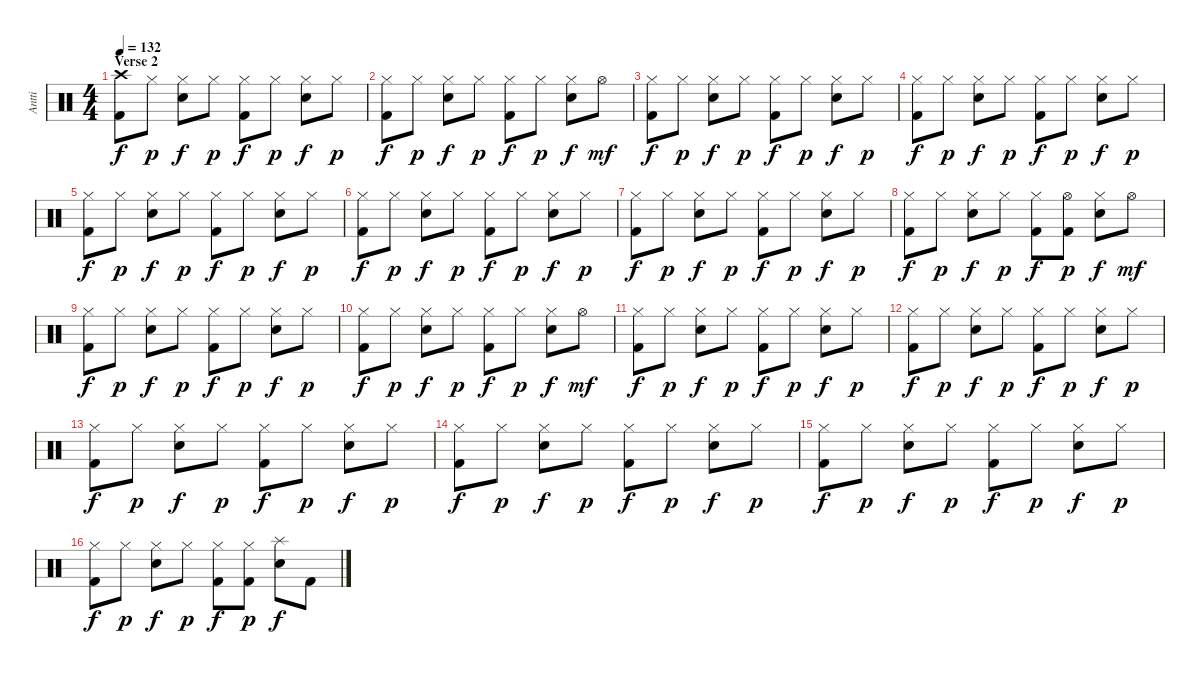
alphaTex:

\track ("Antti" "Antti") {instrument percussion}
\staff {score}
\articulation defaults
\ts (4 4)
\section ("" "Verse 2")
\tempo 132
\clef neutral
\ks c
("Crash high (hit)" "Kick (hit) 2").8{dy f} "Hi-Hat (closed)".8{dy p} ("Hi-Hat (closed)" "Electric Snare (hit)").8{dy f} "Hi-Hat (closed)".8{dy p} ("Hi-Hat (closed)" "Kick (hit) 2").8{dy f} "Hi-Hat (closed)".8{dy p} ("Hi-Hat (closed)" "Electric Snare (hit)").8{dy f} "Hi-Hat (closed)".8{dy p} |
("Hi-Hat (closed)" "Kick (hit) 2").8{dy f} "Hi-Hat (closed)".8{dy p} ("Hi-Hat (closed)" "Electric Snare (hit)").8{dy f} "Hi-Hat (closed)".8{dy p} ("Hi-Hat (closed)" "Kick (hit) 2").8{dy f} "Hi-Hat (closed)".8{dy p} ("Hi-Hat (closed)" "Electric Snare (hit)").8{dy f} "Hi-Hat (open)".8{dy mf} |
("Hi-Hat (closed)" "Kick (hit) 2").8{dy f} "Hi-Hat (closed)".8{dy p} ("Hi-Hat (closed)" "Electric Snare (hit)").8{dy f} "Hi-Hat (closed)".8{dy p} ("Hi-Hat (closed)" "Kick (hit) 2").8{dy f} "Hi-Hat (closed)".8{dy p} ("Hi-Hat (closed)" "Electric Snare (hit)").8{dy f} "Hi-Hat (closed)".8{dy p} |
("Hi-Hat (closed)" "Kick (hit) 2").8{dy f} "Hi-Hat (closed)".8{dy p} ("Hi-Hat (closed)" "Electric Snare (hit)").8{dy f} "Hi-Hat (closed)".8{dy p} ("Hi-Hat (closed)" "Kick (hit) 2").8{dy f} "Hi-Hat (closed)".8{dy p} ("Hi-Hat (closed)" "Electric Snare (hit)").8{dy f} "Hi-Hat (closed)".8{dy p} |
("Hi-Hat (closed)" "Kick (hit) 2").8{dy f} "Hi-Hat (closed)".8{dy p} ("Hi-Hat (closed)" "Electric Snare (hit)").8{dy f} "Hi-Hat (closed)".8{dy p} ("Hi-Hat (closed)" "Kick (hit) 2").8{dy f} "Hi-Hat (closed)".8{dy p} ("Hi-Hat (closed)" "Electric Snare (hit)").8{dy f} "Hi-Hat (closed)".8{dy p} |
("Hi-Hat (closed)" "Kick (hit) 2").8{dy f} "Hi-Hat (closed)".8{dy p} ("Hi-Hat (closed)" "Electric Snare (hit)").8{dy f} "Hi-Hat (closed)".8{dy p} ("Hi-Hat (closed)" "Kick (hit) 2").8{dy f} "Hi-Hat (closed)".8{dy p} ("Hi-Hat (closed)" "Electric Snare (hit)").8{dy f} "Hi-Hat (closed)".8{dy p} |
("Hi-Hat (closed)" "Kick (hit) 2").8{dy f} "Hi-Hat (closed)".8{dy p} ("Hi-Hat (closed)" "Electric Snare (hit)").8{dy f} "Hi-Hat (closed)".8{dy p} ("Hi-Hat (closed)" "Kick (hit) 2").8{dy f} "Hi-Hat (closed)".8{dy p} ("Hi-Hat (closed)" "Electric Snare (hit)").8{dy f} "Hi-Hat (closed)".8{dy p} |
("Hi-Hat (closed)" "Kick (hit) 2").8{dy f} "Hi-Hat (closed)".8{dy p} ("Hi-Hat (closed)" "Electric Snare (hit)").8{dy f} "Hi-Hat (closed)".8{dy p} ("Hi-Hat (closed)" "Kick (hit) 2").8{dy f} ("Hi-Hat (open)" "Kick (hit) 2").8{dy p} ("Hi-Hat (closed)" "Electric Snare (hit)").8{dy f} "Hi-Hat (open)".8{dy mf} |
("Hi-Hat (closed)" "Kick (hit) 2").8{dy f} "Hi-Hat (closed)".8{dy p} ("Hi-Hat (closed)" "Electric Snare (hit)").8{dy f} "Hi-Hat (closed)".8{dy p} ("Hi-Hat (closed)" "Kick (hit) 2").8{dy f} "Hi-Hat (closed)".8{dy p} ("Hi-Hat (closed)" "Electric Snare (hit)").8{dy f} "Hi-Hat (closed)".8{dy p} |
("Hi-Hat (closed)" "Kick (hit) 2").8{dy f} "Hi-Hat (closed)".8{dy p} ("Hi-Hat (closed)" "Electric Snare (hit)").8{dy f} "Hi-Hat (closed)".8{dy p} ("Hi-Hat (closed)" "Kick (hit) 2").8{dy f} "Hi-Hat (closed)".8{dy p} ("Hi-Hat (closed)" "Electric Snare (hit)").8{dy f} "Hi-Hat (open)".8{dy mf} |
("Hi-Hat (closed)" "Kick (hit) 2").8{dy f} "Hi-Hat (closed)".8{dy p} ("Hi-Hat (closed)" "Electric Snare (hit)").8{dy f} "Hi-Hat (closed)".8{dy p} ("Hi-Hat (closed)" "Kick (hit) 2").8{dy f} "Hi-Hat (closed)".8{dy p} ("Hi-Hat (closed)" "Electric Snare (hit)").8{dy f} "Hi-Hat (closed)".8{dy p} |
("Hi-Hat (closed)" "Kick (hit) 2").8{dy f} "Hi-Hat (closed)".8{dy p} ("Hi-Hat (closed)" "Electric Snare (hit)").8{dy f} "Hi-Hat (closed)".8{dy p} ("Hi-Hat (closed)" "Kick (hit) 2").8{dy f} "Hi-Hat (closed)".8{dy p} ("Hi-Hat (closed)" "Electric Snare (hit)").8{dy f} "Hi-Hat (closed)".8{dy p} |
("Hi-Hat (closed)" "Kick (hit) 2").8{dy f} "Hi-Hat (closed)".8{dy p} ("Hi-Hat (closed)" "Electric Snare (hit)").8{dy f} "Hi-Hat (closed)".8{dy p} ("Hi-Hat (closed)" "Kick (hit) 2").8{dy f} "Hi-Hat (closed)".8{dy p} ("Hi-Hat (closed)" "Electric Snare (hit)").8{dy f} "Hi-Hat (closed)".8{dy p} |
("Hi-Hat (closed)" "Kick (hit) 2").8{dy f} "Hi-Hat (closed)".8{dy p} ("Hi-Hat (closed)" "Electric Snare (hit)").8{dy f} "Hi-Hat (closed)".8{dy p} ("Hi-Hat (closed)" "Kick (hit) 2").8{dy f} "Hi-Hat (closed)".8{dy p} ("Hi-Hat (closed)" "Electric Snare (hit)").8{dy f} "Hi-Hat (closed)".8{dy p} |
("Hi-Hat (closed)" "Kick (hit) 2").8{dy f} "Hi-Hat (closed)".8{dy p} ("Hi-Hat (closed)" "Electric Snare (hit)").8{dy f} "Hi-Hat (closed)".8{dy p} ("Hi-Hat (closed)" "Kick (hit) 2").8{dy f} "Hi-Hat (closed)".8{dy p} ("Hi-Hat (closed)" "Electric Snare (hit)").8{dy f} "Hi-Hat (closed)".8{dy p} |
("Hi-Hat (closed)" "Kick (hit) 2").8{dy f} "Hi-Hat (closed)".8{dy p} ("Hi-Hat (closed)" "Electric Snare (hit)").8{dy f} "Hi-Hat (closed)".8{dy p} ("Hi-Hat (closed)" "Kick (hit) 2").8{dy f} ("Hi-Hat (closed)" "Kick (hit) 2").8{dy p} ("Splash (hit)" "Electric Snare (hit)").8{dy f} "Kick (hit) 2".8
